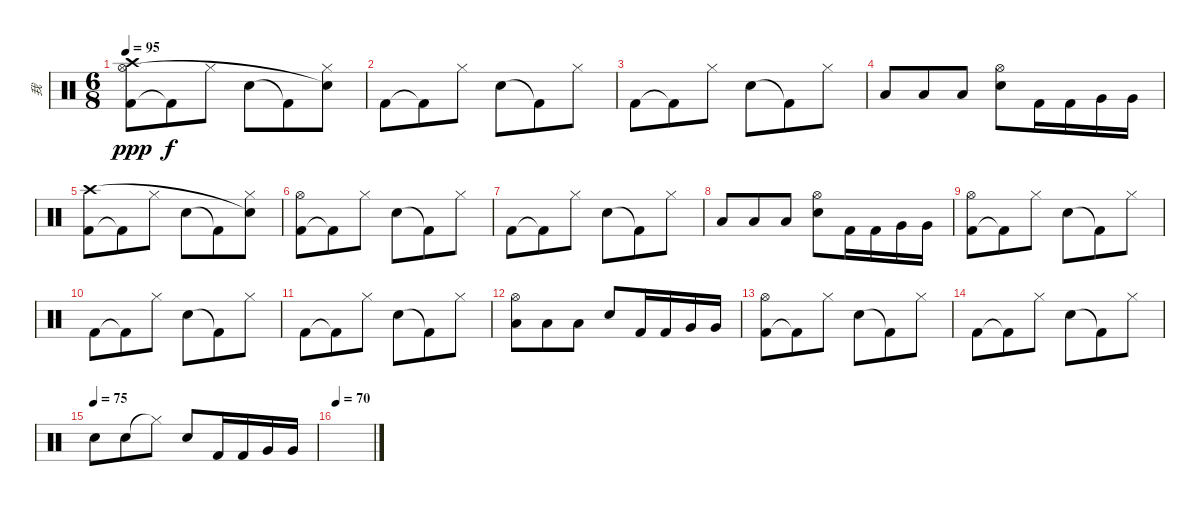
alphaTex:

\track ("我" "我") {instrument percussion}
\staff {score}
\articulation defaults
\ts (6 8)
\tempo 95
\clef neutral
\ks c
("Kick (hit) 2" "Hi-Hat (open)" "Crash high (hit)").8{dy ppp} "Kick (hit) 2"{t}.8{dy f} "Hi-Hat (closed)".8 "Electric Snare (hit)".8 "Kick (hit) 2"{t}.8 ("Hi-Hat (closed)" "Snare (hit)"{t}).8 |
"Kick (hit) 2".8 "Kick (hit) 2"{t}.8 "Hi-Hat (closed)".8 "Electric Snare (hit)".8 "Kick (hit) 2"{t}.8 "Hi-Hat (closed)".8 |
"Kick (hit) 2".8 "Kick (hit) 2"{t}.8 "Hi-Hat (closed)".8 "Electric Snare (hit)".8 "Kick (hit) 2"{t}.8 "Hi-Hat (closed)".8 |
"Low Tom (hit)".8 "Low Tom (hit)".8 "Low Tom (hit)".8 ("Snare (hit) 2" "Hi-Hat (open)").8 "Kick (hit) 2".16 "Kick (hit) 2".16 "Very Low Tom (hit)".16 "Very Low Tom (hit)".16 |
("Kick (hit) 2" "Crash high (hit)").8 "Kick (hit) 2"{t}.8 "Hi-Hat (closed)".8 "Electric Snare (hit)".8 "Kick (hit) 2"{t}.8 ("Hi-Hat (closed)" "Snare (hit)"{t}).8 |
("Kick (hit) 2" "Hi-Hat (open)").8 "Kick (hit) 2"{t}.8 "Hi-Hat (closed)".8 "Electric Snare (hit)".8 "Kick (hit) 2"{t}.8 "Hi-Hat (closed)".8 |
"Kick (hit) 2".8 "Kick (hit) 2"{t}.8 "Hi-Hat (closed)".8 "Electric Snare (hit)".8 "Kick (hit) 2"{t}.8 "Hi-Hat (closed)".8 |
"Low Tom (hit)".8 "Low Tom (hit)".8 "Low Tom (hit)".8 ("Snare (hit) 2" "Hi-Hat (open)").8 "Kick (hit) 2".16 "Kick (hit) 2".16 "Very Low Tom (hit)".16 "Very Low Tom (hit)".16 |
("Kick (hit) 2" "Hi-Hat (open)").8 "Kick (hit) 2"{t}.8 "Hi-Hat (closed)".8 "Electric Snare (hit)".8 "Kick (hit) 2"{t}.8 "Hi-Hat (closed)".8 |
"Kick (hit) 2".8 "Kick (hit) 2"{t}.8 "Hi-Hat (closed)".8 "Electric Snare (hit)".8 "Kick (hit) 2"{t}.8 "Hi-Hat (closed)".8 |
"Kick (hit) 2".8 "Kick (hit) 2"{t}.8 "Hi-Hat (closed)".8 "Electric Snare (hit)".8 "Kick (hit) 2"{t}.8 "Hi-Hat (closed)".8 |
("Low Tom (hit)" "Hi-Hat (open)").8 "Low Tom (hit)".8 "Low Tom (hit)".8 "Snare (hit) 2".8 "Kick (hit) 2".16 "Kick (hit) 2".16 "Very Low Tom (hit)".16 "Very Low Tom (hit)".16 |
("Kick (hit) 2" "Hi-Hat (open)").8 "Kick (hit) 2"{t}.8 "Hi-Hat (closed)".8 "Electric Snare (hit)".8 "Kick (hit) 2"{t}.8 "Hi-Hat (closed)".8 |
"Kick (hit) 2".8 "Kick (hit) 2"{t}.8 "Hi-Hat (closed)".8 "Electric Snare (hit)".8 "Kick (hit) 2"{t}.8 "Hi-Hat (closed)".8 |
\tempo (75)
"Electric Snare (hit)".8 "Electric Snare (hit)".8 "Hi-Hat (closed)"{t}.8 "Electric Snare (hit)".8 "Kick (hit) 2".16 "Kick (hit) 2".16 "Very Low Tom (hit)".16 "Very Low Tom (hit)".16 |
\tempo 70
